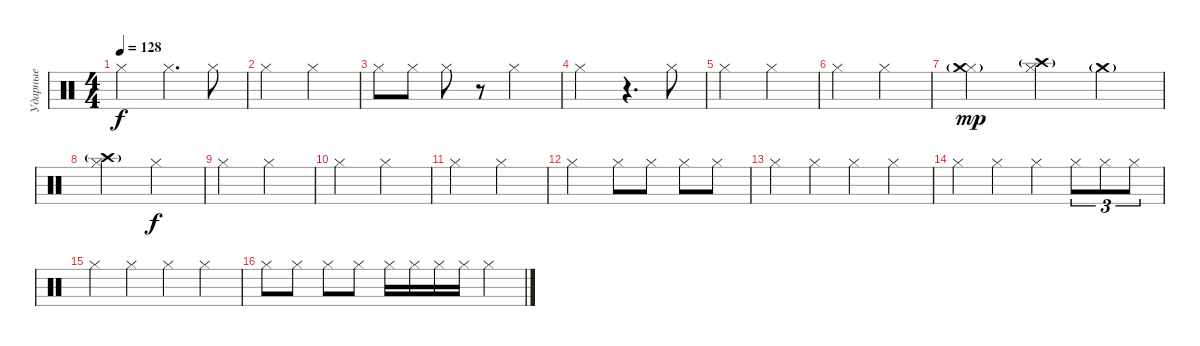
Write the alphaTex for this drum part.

\track ("Ударные" "Ударные") {instrument percussion}
\staff {score}
\articulation defaults
\ts (4 4)
\tempo 128
\clef neutral
\ks c "Hi-Hat (closed)".2{dy f} "Hi-Hat (closed)".4{d} "Hi-Hat (closed)".8
|
"Hi-Hat (closed)".2 "Hi-Hat (closed)".2 |
"Hi-Hat (closed)".8 "Hi-Hat (closed)".8 "Hi-Hat (closed)".8 r.8 "Hi-Hat (closed)".2 |
"Hi-Hat (closed)".2 r.4{d} "Hi-Hat (closed)".8 |
"Hi-Hat (closed)".2 "Hi-Hat (closed)".2 |
"Hi-Hat (closed)".2 "Hi-Hat (closed)".2 |
("Hi-Hat (closed)" "Crash medium (hit)"{g}).2{dy mp} ("Hi-Hat (closed)" "Crash high (hit)"{g}).4 "Crash medium (hit)"{g}.4 |
("Hi-Hat (closed)" "Crash high (hit)"{g}).2 "Hi-Hat (closed)".2{dy f} |
"Hi-Hat (closed)".2 "Hi-Hat (closed)".2 |
"Hi-Hat (closed)".2 "Hi-Hat (closed)".2 |
"Hi-Hat (closed)".2 "Hi-Hat (closed)".2 |
"Hi-Hat (closed)".2 "Hi-Hat (closed)".8 "Hi-Hat (closed)".8 "Hi-Hat (closed)".8 "Hi-Hat (closed)".8 |
"Hi-Hat (closed)".4 "Hi-Hat (closed)".4 "Hi-Hat (closed)".4 "Hi-Hat (closed)".4 |
"Hi-Hat (closed)".4 "Hi-Hat (closed)".4 "Hi-Hat (closed)".4 "Hi-Hat (closed)".8{tu (3 2)} "Hi-Hat (closed)".8{tu (3 2)} "Hi-Hat (closed)".8{tu (3 2)} |
"Hi-Hat (closed)".4 "Hi-Hat (closed)".4 "Hi-Hat (closed)".4 "Hi-Hat (closed)".4 |
"Hi-Hat (closed)".8 "Hi-Hat (closed)".8 "Hi-Hat (closed)".8 "Hi-Hat (closed)".8 "Hi-Hat (closed)".16 "Hi-Hat (closed)".16 "Hi-Hat (closed)".16 "Hi-Hat (closed)".16 "Hi-Hat (closed)".4
